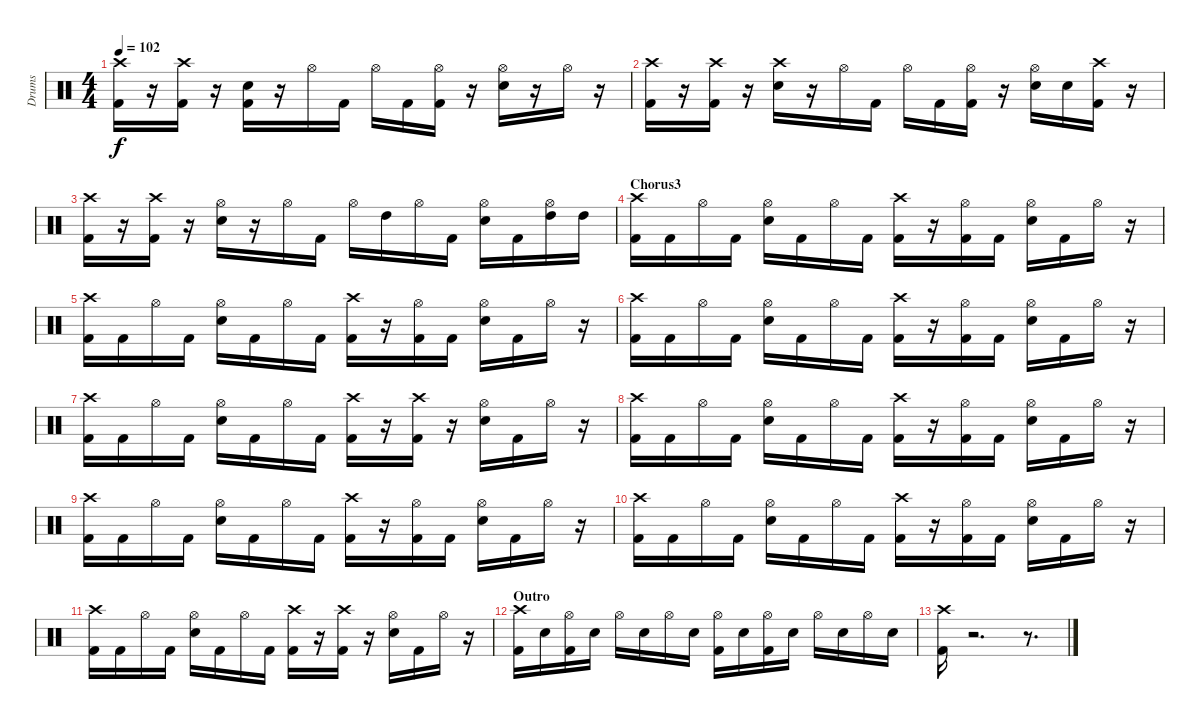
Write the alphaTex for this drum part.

\track ("Drums" "Drums") {instrument percussion}
\staff {score}
\articulation defaults
\ts (4 4)
\tempo 102
\clef neutral
\ks c
("Crash high (hit)" "Kick (hit) 2").16{dy f} r.16 ("Crash high (hit)" "Kick (hit) 2").16 r.16 ("Kick (hit) 2" "Snare (hit) 2").16 r.16 "Hi-Hat (open)".16 "Kick (hit) 2".16 "Hi-Hat (open)".16 "Kick (hit) 2".16 ("Hi-Hat (open)" "Kick (hit) 2").16 r.16 ("Hi-Hat (open)" "Snare (hit) 2").16 r.16 "Hi-Hat (open)".16 r.16 |
("Crash high (hit)" "Kick (hit) 2").16 r.16 ("Crash high (hit)" "Kick (hit) 2").16 r.16 ("Crash high (hit)" "Snare (hit) 2").16 r.16 "Hi-Hat (open)".16 "Kick (hit) 2".16 "Hi-Hat (open)".16 "Kick (hit) 2".16 ("Hi-Hat (open)" "Kick (hit) 2").16 r.16 ("Hi-Hat (open)" "Snare (hit) 2").16 "Snare (hit) 2".16 ("Crash high (hit)" "Kick (hit) 2").16 r.16 |
("Crash high (hit)" "Kick (hit) 2").16 r.16 ("Crash high (hit)" "Kick (hit) 2").16 r.16 ("Hi-Hat (open)" "Snare (hit) 2").16 r.16 "Hi-Hat (open)".16 "Kick (hit) 2".16 "Hi-Hat (open)".16 "High Tom (hit)".16 "Hi-Hat (open)".16 "Kick (hit) 2".16 ("Hi-Hat (open)" "Snare (hit) 2").16 "Kick (hit) 2".16 ("High Tom (hit)" "Hi-Hat (open)").16 "High Tom (hit)".16 |
\section ("" "Chorus3")
("Crash high (hit)" "Kick (hit) 2").16 "Kick (hit) 2".16 "Hi-Hat (open)".16 "Kick (hit) 2".16 ("Hi-Hat (open)" "Snare (hit) 2").16 "Kick (hit) 2".16 "Hi-Hat (open)".16 "Kick (hit) 2".16 ("Crash high (hit)" "Kick (hit) 2").16 r.16 ("Hi-Hat (open)" "Kick (hit) 2").16 "Kick (hit) 2".16 ("Hi-Hat (open)" "Snare (hit) 2").16 "Kick (hit) 2".16 "Hi-Hat (open)".16 r.16 |
("Crash high (hit)" "Kick (hit) 2").16 "Kick (hit) 2".16 "Hi-Hat (open)".16 "Kick (hit) 2".16 ("Hi-Hat (open)" "Snare (hit) 2").16 "Kick (hit) 2".16 "Hi-Hat (open)".16 "Kick (hit) 2".16 ("Crash high (hit)" "Kick (hit) 2").16 r.16 ("Hi-Hat (open)" "Kick (hit) 2").16 "Kick (hit) 2".16 ("Hi-Hat (open)" "Snare (hit) 2").16 "Kick (hit) 2".16 "Hi-Hat (open)".16 r.16 |
("Crash high (hit)" "Kick (hit) 2").16 "Kick (hit) 2".16 "Hi-Hat (open)".16 "Kick (hit) 2".16 ("Hi-Hat (open)" "Snare (hit) 2").16 "Kick (hit) 2".16 "Hi-Hat (open)".16 "Kick (hit) 2".16 ("Crash high (hit)" "Kick (hit) 2").16 r.16 ("Hi-Hat (open)" "Kick (hit) 2").16 "Kick (hit) 2".16 ("Hi-Hat (open)" "Snare (hit) 2").16 "Kick (hit) 2".16 "Hi-Hat (open)".16 r.16 |
("Crash high (hit)" "Kick (hit) 2").16 "Kick (hit) 2".16 "Hi-Hat (open)".16 "Kick (hit) 2".16 ("Hi-Hat (open)" "Snare (hit) 2").16 "Kick (hit) 2".16 "Hi-Hat (open)".16 "Kick (hit) 2".16 ("Crash high (hit)" "Kick (hit) 2").16 r.16 ("Crash high (hit)" "Kick (hit) 2").16 r.16 ("Hi-Hat (open)" "Snare (hit) 2").16 "Kick (hit) 2".16 "Hi-Hat (open)".16 r.16 |
("Crash high (hit)" "Kick (hit) 2").16 "Kick (hit) 2".16 "Hi-Hat (open)".16 "Kick (hit) 2".16 ("Hi-Hat (open)" "Snare (hit) 2").16 "Kick (hit) 2".16 "Hi-Hat (open)".16 "Kick (hit) 2".16 ("Crash high (hit)" "Kick (hit) 2").16 r.16 ("Hi-Hat (open)" "Kick (hit) 2").16 "Kick (hit) 2".16 ("Hi-Hat (open)" "Snare (hit) 2").16 "Kick (hit) 2".16 "Hi-Hat (open)".16 r.16 |
("Crash high (hit)" "Kick (hit) 2").16 "Kick (hit) 2".16 "Hi-Hat (open)".16 "Kick (hit) 2".16 ("Hi-Hat (open)" "Snare (hit) 2").16 "Kick (hit) 2".16 "Hi-Hat (open)".16 "Kick (hit) 2".16 ("Crash high (hit)" "Kick (hit) 2").16 r.16 ("Hi-Hat (open)" "Kick (hit) 2").16 "Kick (hit) 2".16 ("Hi-Hat (open)" "Snare (hit) 2").16 "Kick (hit) 2".16 "Hi-Hat (open)".16 r.16 |
("Crash high (hit)" "Kick (hit) 2").16 "Kick (hit) 2".16 "Hi-Hat (open)".16 "Kick (hit) 2".16 ("Hi-Hat (open)" "Snare (hit) 2").16 "Kick (hit) 2".16 "Hi-Hat (open)".16 "Kick (hit) 2".16 ("Crash high (hit)" "Kick (hit) 2").16 r.16 ("Hi-Hat (open)" "Kick (hit) 2").16 "Kick (hit) 2".16 ("Hi-Hat (open)" "Snare (hit) 2").16 "Kick (hit) 2".16 "Hi-Hat (open)".16 r.16 |
("Crash high (hit)" "Kick (hit) 2").16 "Kick (hit) 2".16 "Hi-Hat (open)".16 "Kick (hit) 2".16 ("Hi-Hat (open)" "Snare (hit) 2").16 "Kick (hit) 2".16 "Hi-Hat (open)".16 "Kick (hit) 2".16 ("Crash high (hit)" "Kick (hit) 2").16 r.16 ("Crash high (hit)" "Kick (hit) 2").16 r.16 ("Hi-Hat (open)" "Snare (hit) 2").16 "Kick (hit) 2".16 "Hi-Hat (open)".16 r.16 |
\section ("" "Outro")
("Crash high (hit)" "Kick (hit) 2").16 "Snare (hit) 2".16 ("Hi-Hat (open)" "Kick (hit) 2").16 "Snare (hit) 2".16 "Hi-Hat (open)".16 "Snare (hit) 2".16 "Hi-Hat (open)".16 "Snare (hit) 2".16 ("Hi-Hat (open)" "Kick (hit) 2").16 "Snare (hit) 2".16 ("Hi-Hat (open)" "Kick (hit) 2").16 "Snare (hit) 2".16 "Hi-Hat (open)".16 "Snare (hit) 2".16 "Hi-Hat (open)".16 "Snare (hit) 2".16 |
("Crash high (hit)" "Kick (hit) 2").16 r.2{d} r.8{d}
